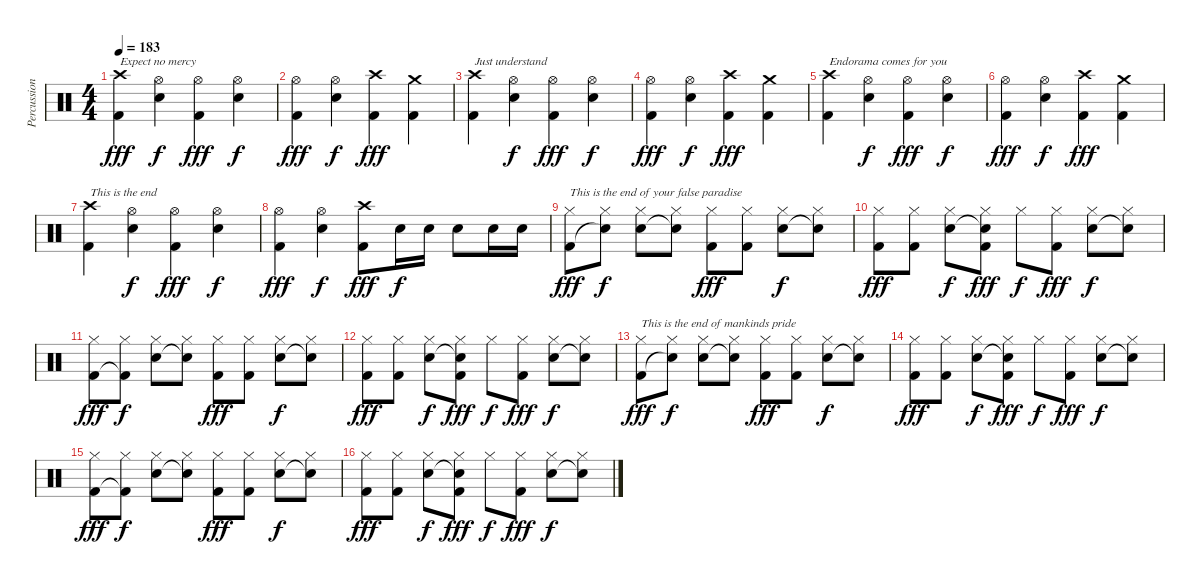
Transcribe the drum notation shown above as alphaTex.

\track ("Percussion" "Percussion") {instrument percussion}
\staff {score}
\articulation defaults
\ts (4 4)
\tempo 183
\clef neutral
\ks c
("Crash high (hit)" "Kick (hit) 2").4{txt "Expect no mercy" dy fff} ("Hi-Hat (open)" "Snare (hit) 2").4{dy f} ("Hi-Hat (open)" "Kick (hit) 2").4{dy fff} ("Hi-Hat (open)" "Snare (hit) 2").4{dy f} |
("Hi-Hat (open)" "Kick (hit) 2").4{dy fff} ("Hi-Hat (open)" "Snare (hit) 2").4{dy f} ("Crash high (hit)" "Kick (hit) 2").4{dy fff} ("Crash medium (hit)" "Kick (hit) 2").4 |
("Crash high (hit)" "Kick (hit) 2").4{txt "Just understand"} ("Hi-Hat (open)" "Snare (hit) 2").4{dy f} ("Hi-Hat (open)" "Kick (hit) 2").4{dy fff} ("Hi-Hat (open)" "Snare (hit) 2").4{dy f} |
("Hi-Hat (open)" "Kick (hit) 2").4{dy fff} ("Hi-Hat (open)" "Snare (hit) 2").4{dy f} ("Crash high (hit)" "Kick (hit) 2").4{dy fff} ("Crash medium (hit)" "Kick (hit) 2").4 |
("Crash high (hit)" "Kick (hit) 2").4{txt "Endorama comes for you"} ("Hi-Hat (open)" "Snare (hit) 2").4{dy f} ("Hi-Hat (open)" "Kick (hit) 2").4{dy fff} ("Hi-Hat (open)" "Snare (hit) 2").4{dy f} |
("Hi-Hat (open)" "Kick (hit) 2").4{dy fff} ("Hi-Hat (open)" "Snare (hit) 2").4{dy f} ("Crash high (hit)" "Kick (hit) 2").4{dy fff} ("Crash medium (hit)" "Kick (hit) 2").4 |
("Crash high (hit)" "Kick (hit) 2").4{txt "This is the end"} ("Hi-Hat (open)" "Snare (hit) 2").4{dy f} ("Hi-Hat (open)" "Kick (hit) 2").4{dy fff} ("Hi-Hat (open)" "Snare (hit) 2").4{dy f} |
("Hi-Hat (open)" "Kick (hit) 2").4{dy fff} ("Hi-Hat (open)" "Snare (hit) 2").4{dy f} ("Crash high (hit)" "Kick (hit) 2").8{dy fff} "Snare (hit) 2".16{dy f} "Snare (hit) 2".16 "Snare (hit) 2".8 "Snare (hit) 2".16 "Snare (hit) 2".16 |
("Hi-Hat (closed)" "Kick (hit) 2").8{txt "This is the end of your false paradise" dy fff} ("Hi-Hat (closed)" "Snare (hit)"{t}).8{dy f} ("Hi-Hat (closed)" "Snare (hit) 2").8 ("Hi-Hat (closed)" "Snare (hit)"{t}).8 ("Hi-Hat (closed)" "Kick (hit) 2").8{dy fff} ("Hi-Hat (closed)" "Kick (hit) 2").8 ("Hi-Hat (closed)" "Snare (hit) 2").8{dy f} ("Hi-Hat (closed)" "Snare (hit)"{t}).8 |
("Hi-Hat (closed)" "Kick (hit) 2").8{dy fff} ("Hi-Hat (closed)" "Kick (hit) 2").8 ("Hi-Hat (closed)" "Snare (hit) 2").8{dy f} ("Hi-Hat (closed)" "Snare (hit)"{t} "Kick (hit) 2").8{dy fff} "Hi-Hat (closed)".8{dy f} ("Hi-Hat (closed)" "Kick (hit) 2").8{dy fff} ("Hi-Hat (closed)" "Snare (hit) 2").8{dy f} ("Hi-Hat (closed)" "Snare (hit)"{t}).8 |
("Hi-Hat (closed)" "Kick (hit) 2").8{dy fff} ("Hi-Hat (closed)" "Kick (hit) 2"{t}).8{dy f} ("Hi-Hat (closed)" "Snare (hit) 2").8 ("Hi-Hat (closed)" "Snare (hit)"{t}).8 ("Hi-Hat (closed)" "Kick (hit) 2").8{dy fff} ("Hi-Hat (closed)" "Kick (hit) 2").8 ("Hi-Hat (closed)" "Snare (hit) 2").8{dy f} ("Hi-Hat (closed)" "Snare (hit)"{t}).8 |
("Hi-Hat (closed)" "Kick (hit) 2").8{dy fff} ("Hi-Hat (closed)" "Kick (hit) 2").8 ("Hi-Hat (closed)" "Snare (hit) 2").8{dy f} ("Hi-Hat (closed)" "Snare (hit)"{t} "Kick (hit) 2").8{dy fff} "Hi-Hat (closed)".8{dy f} ("Hi-Hat (closed)" "Kick (hit) 2").8{dy fff} ("Hi-Hat (closed)" "Snare (hit) 2").8{dy f} ("Hi-Hat (closed)" "Snare (hit)"{t}).8 |
("Hi-Hat (closed)" "Kick (hit) 2").8{txt "This is the end of mankinds pride" dy fff} ("Hi-Hat (closed)" "Snare (hit)"{t}).8{dy f} ("Hi-Hat (closed)" "Snare (hit) 2").8 ("Hi-Hat (closed)" "Snare (hit)"{t}).8 ("Hi-Hat (closed)" "Kick (hit) 2").8{dy fff} ("Hi-Hat (closed)" "Kick (hit) 2").8 ("Hi-Hat (closed)" "Snare (hit) 2").8{dy f} ("Hi-Hat (closed)" "Snare (hit)"{t}).8 |
("Hi-Hat (closed)" "Kick (hit) 2").8{dy fff} ("Hi-Hat (closed)" "Kick (hit) 2").8 ("Hi-Hat (closed)" "Snare (hit) 2").8{dy f} ("Hi-Hat (closed)" "Snare (hit)"{t} "Kick (hit) 2").8{dy fff} "Hi-Hat (closed)".8{dy f} ("Hi-Hat (closed)" "Kick (hit) 2").8{dy fff} ("Hi-Hat (closed)" "Snare (hit) 2").8{dy f} ("Hi-Hat (closed)" "Snare (hit)"{t}).8 |
("Hi-Hat (closed)" "Kick (hit) 2").8{dy fff} ("Hi-Hat (closed)" "Kick (hit) 2"{t}).8{dy f} ("Hi-Hat (closed)" "Snare (hit) 2").8 ("Hi-Hat (closed)" "Snare (hit)"{t}).8 ("Hi-Hat (closed)" "Kick (hit) 2").8{dy fff} ("Hi-Hat (closed)" "Kick (hit) 2").8 ("Hi-Hat (closed)" "Snare (hit) 2").8{dy f} ("Hi-Hat (closed)" "Snare (hit)"{t}).8 |
("Hi-Hat (closed)" "Kick (hit) 2").8{dy fff} ("Hi-Hat (closed)" "Kick (hit) 2").8 ("Hi-Hat (closed)" "Snare (hit) 2").8{dy f} ("Hi-Hat (closed)" "Snare (hit)"{t} "Kick (hit) 2").8{dy fff} "Hi-Hat (closed)".8{dy f} ("Hi-Hat (closed)" "Kick (hit) 2").8{dy fff} ("Hi-Hat (closed)" "Snare (hit) 2").8{dy f} ("Hi-Hat (closed)" "Snare (hit)"{t}).8
